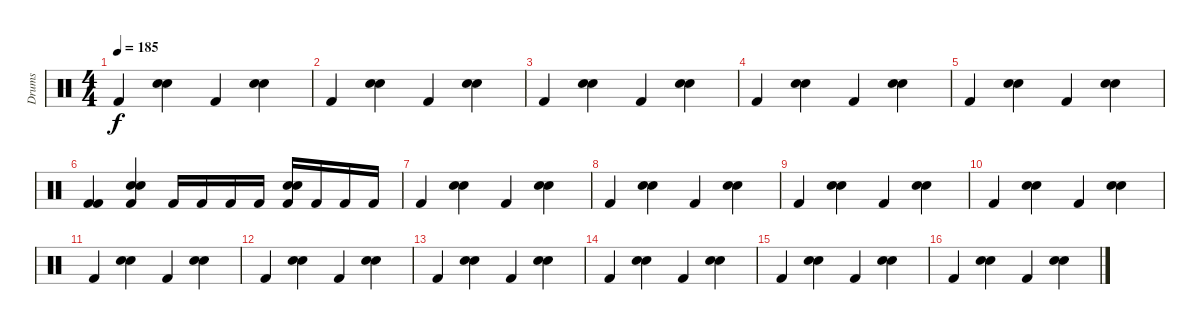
\track ("Drums" "Drums") {instrument percussion}
\staff {score}
\articulation defaults
\ts (4 4)
\tempo 185
\clef neutral
\ks c "Kick (hit) 2".4{dy f}
("Electric Snare (hit)" "Snare (hit) 2").4 "Kick (hit) 2".4 ("Electric Snare (hit)" "Snare (hit) 2").4 |
"Kick (hit) 2".4 ("Electric Snare (hit)" "Snare (hit) 2").4 "Kick (hit) 2".4 ("Snare (hit) 2" "Electric Snare (hit)").4 |
"Kick (hit) 2".4 ("Electric Snare (hit)" "Snare (hit) 2").4 "Kick (hit) 2".4 ("Electric Snare (hit)" "Snare (hit) 2").4 |
"Kick (hit) 2".4 ("Electric Snare (hit)" "Snare (hit) 2").4 "Kick (hit) 2".4 ("Snare (hit) 2" "Electric Snare (hit)").4 |
"Kick (hit) 2".4 ("Electric Snare (hit)" "Snare (hit) 2").4 "Kick (hit) 2".4 ("Electric Snare (hit)" "Snare (hit) 2").4 |
("Kick (hit) 2" "Kick (hit) 2").4 ("Kick (hit) 2" "Electric Snare (hit)" "Snare (hit) 2").4 "Kick (hit) 2".16 "Kick (hit) 2".16 "Kick (hit) 2".16 "Kick (hit) 2".16 ("Kick (hit) 2" "Electric Snare (hit)" "Snare (hit) 2").16 "Kick (hit) 2".16 "Kick (hit) 2".16 "Kick (hit) 2".16 |
"Kick (hit) 2".4 ("Electric Snare (hit)" "Snare (hit) 2").4 "Kick (hit) 2".4 ("Snare (hit) 2" "Electric Snare (hit)").4 |
"Kick (hit) 2".4 ("Electric Snare (hit)" "Snare (hit) 2").4 "Kick (hit) 2".4 ("Electric Snare (hit)" "Snare (hit) 2").4 |
"Kick (hit) 2".4 ("Electric Snare (hit)" "Snare (hit) 2").4 "Kick (hit) 2".4 ("Snare (hit) 2" "Electric Snare (hit)").4 |
"Kick (hit) 2".4 ("Electric Snare (hit)" "Snare (hit) 2").4 "Kick (hit) 2".4 ("Electric Snare (hit)" "Snare (hit) 2").4 |
"Kick (hit) 2".4 ("Electric Snare (hit)" "Snare (hit) 2").4 "Kick (hit) 2".4 ("Snare (hit) 2" "Electric Snare (hit)").4 |
"Kick (hit) 2".4 ("Electric Snare (hit)" "Snare (hit) 2").4 "Kick (hit) 2".4 ("Electric Snare (hit)" "Snare (hit) 2").4 |
"Kick (hit) 2".4 ("Electric Snare (hit)" "Snare (hit) 2").4 "Kick (hit) 2".4 ("Snare (hit) 2" "Electric Snare (hit)").4 |
"Kick (hit) 2".4 ("Electric Snare (hit)" "Snare (hit) 2").4 "Kick (hit) 2".4 ("Electric Snare (hit)" "Snare (hit) 2").4 |
"Kick (hit) 2".4 ("Electric Snare (hit)" "Snare (hit) 2").4 "Kick (hit) 2".4 ("Snare (hit) 2" "Electric Snare (hit)").4 |
"Kick (hit) 2".4 ("Electric Snare (hit)" "Snare (hit) 2").4 "Kick (hit) 2".4 ("Electric Snare (hit)" "Snare (hit) 2").4
